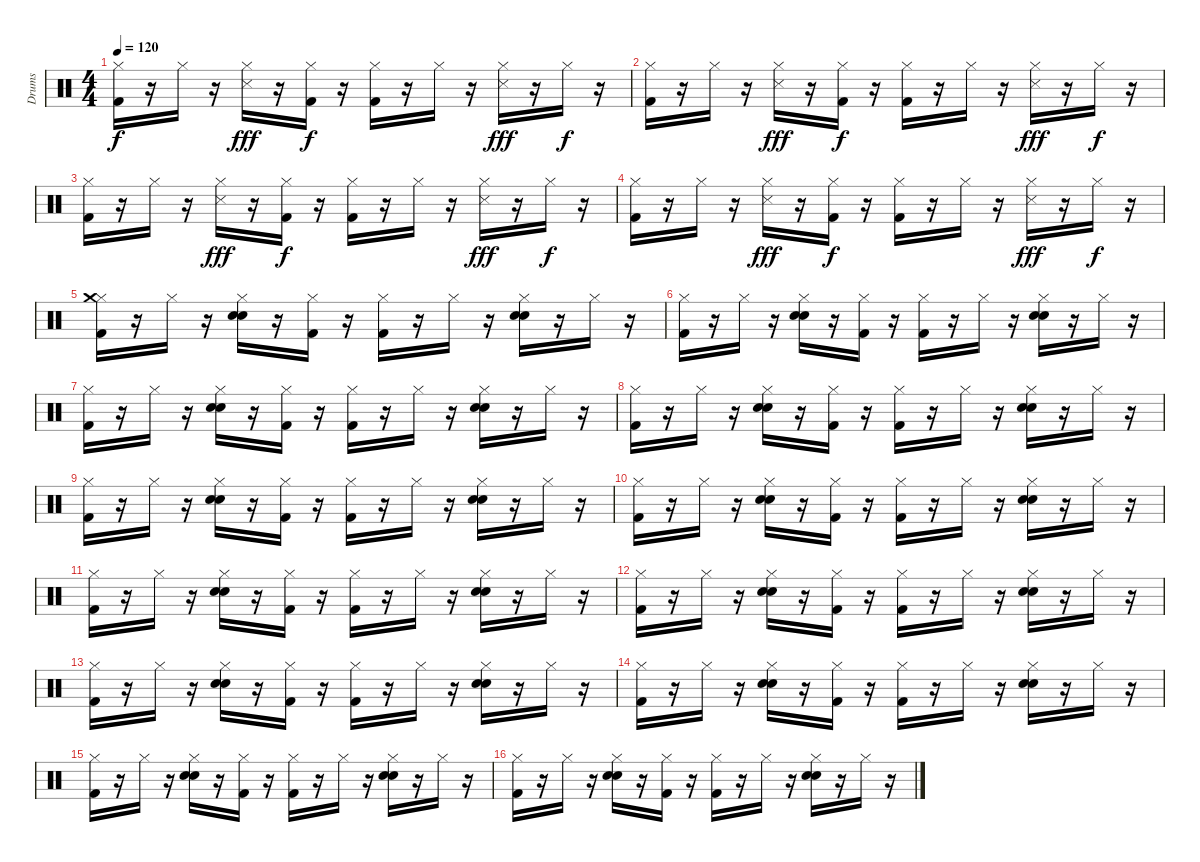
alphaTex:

\track ("Drums" "Drums") {instrument percussion}
\staff {score}
\articulation defaults
\ts (4 4)
\tempo 120
\clef neutral
\ks c
("Hi-Hat (closed)" "Kick (hit) 2").16{dy f} r.16 "Hi-Hat (closed)".16 r.16 ("Hi-Hat (closed)" "Snare (side stick) 3").16{dy fff} r.16 ("Hi-Hat (closed)" "Kick (hit) 2").16{dy f} r.16 ("Hi-Hat (closed)" "Kick (hit) 2").16 r.16 "Hi-Hat (closed)".16 r.16 ("Hi-Hat (closed)" "Snare (side stick) 3").16{dy fff} r.16 "Hi-Hat (closed)".16{dy f} r.16 |
("Hi-Hat (closed)" "Kick (hit) 2").16 r.16 "Hi-Hat (closed)".16 r.16 ("Hi-Hat (closed)" "Snare (side stick) 3").16{dy fff} r.16 ("Hi-Hat (closed)" "Kick (hit) 2").16{dy f} r.16 ("Hi-Hat (closed)" "Kick (hit) 2").16 r.16 "Hi-Hat (closed)".16 r.16 ("Hi-Hat (closed)" "Snare (side stick) 3").16{dy fff} r.16 "Hi-Hat (closed)".16{dy f} r.16 |
("Hi-Hat (closed)" "Kick (hit) 2").16 r.16 "Hi-Hat (closed)".16 r.16 ("Hi-Hat (closed)" "Snare (side stick) 3").16{dy fff} r.16 ("Hi-Hat (closed)" "Kick (hit) 2").16{dy f} r.16 ("Hi-Hat (closed)" "Kick (hit) 2").16 r.16 "Hi-Hat (closed)".16 r.16 ("Hi-Hat (closed)" "Snare (side stick) 3").16{dy fff} r.16 "Hi-Hat (closed)".16{dy f} r.16 |
("Hi-Hat (closed)" "Kick (hit) 2").16 r.16 "Hi-Hat (closed)".16 r.16 ("Hi-Hat (closed)" "Snare (side stick) 3").16{dy fff} r.16 ("Hi-Hat (closed)" "Kick (hit) 2").16{dy f} r.16 ("Hi-Hat (closed)" "Kick (hit) 2").16 r.16 "Hi-Hat (closed)".16 r.16 ("Hi-Hat (closed)" "Snare (side stick) 3").16{dy fff} r.16 "Hi-Hat (closed)".16{dy f} r.16 |
("Hi-Hat (closed)" "Crash medium (hit)" "Kick (hit) 2").16 r.16 "Hi-Hat (closed)".16 r.16 ("Hi-Hat (closed)" "Electric Snare (hit)" "Snare (hit) 2").16 r.16 ("Hi-Hat (closed)" "Kick (hit) 2").16 r.16 ("Hi-Hat (closed)" "Kick (hit) 2").16 r.16 "Hi-Hat (closed)".16 r.16 ("Hi-Hat (closed)" "Electric Snare (hit)" "Snare (hit) 2").16 r.16 "Hi-Hat (closed)".16 r.16 |
("Hi-Hat (closed)" "Kick (hit) 2").16 r.16 "Hi-Hat (closed)".16 r.16 ("Hi-Hat (closed)" "Electric Snare (hit)" "Snare (hit) 2").16 r.16 ("Hi-Hat (closed)" "Kick (hit) 2").16 r.16 ("Hi-Hat (closed)" "Kick (hit) 2").16 r.16 "Hi-Hat (closed)".16 r.16 ("Hi-Hat (closed)" "Electric Snare (hit)" "Snare (hit) 2").16 r.16 "Hi-Hat (closed)".16 r.16 |
("Hi-Hat (closed)" "Kick (hit) 2").16 r.16 "Hi-Hat (closed)".16 r.16 ("Hi-Hat (closed)" "Electric Snare (hit)" "Snare (hit) 2").16 r.16 ("Hi-Hat (closed)" "Kick (hit) 2").16 r.16 ("Hi-Hat (closed)" "Kick (hit) 2").16 r.16 "Hi-Hat (closed)".16 r.16 ("Hi-Hat (closed)" "Electric Snare (hit)" "Snare (hit) 2").16 r.16 "Hi-Hat (closed)".16 r.16 |
("Hi-Hat (closed)" "Kick (hit) 2").16 r.16 "Hi-Hat (closed)".16 r.16 ("Hi-Hat (closed)" "Electric Snare (hit)" "Snare (hit) 2").16 r.16 ("Hi-Hat (closed)" "Kick (hit) 2").16 r.16 ("Hi-Hat (closed)" "Kick (hit) 2").16 r.16 "Hi-Hat (closed)".16 r.16 ("Hi-Hat (closed)" "Electric Snare (hit)" "Snare (hit) 2").16 r.16 "Hi-Hat (closed)".16 r.16 |
("Hi-Hat (closed)" "Kick (hit) 2").16 r.16 "Hi-Hat (closed)".16 r.16 ("Hi-Hat (closed)" "Electric Snare (hit)" "Snare (hit) 2").16 r.16 ("Hi-Hat (closed)" "Kick (hit) 2").16 r.16 ("Hi-Hat (closed)" "Kick (hit) 2").16 r.16 "Hi-Hat (closed)".16 r.16 ("Hi-Hat (closed)" "Electric Snare (hit)" "Snare (hit) 2").16 r.16 "Hi-Hat (closed)".16 r.16 |
("Hi-Hat (closed)" "Kick (hit) 2").16 r.16 "Hi-Hat (closed)".16 r.16 ("Hi-Hat (closed)" "Electric Snare (hit)" "Snare (hit) 2").16 r.16 ("Hi-Hat (closed)" "Kick (hit) 2").16 r.16 ("Hi-Hat (closed)" "Kick (hit) 2").16 r.16 "Hi-Hat (closed)".16 r.16 ("Hi-Hat (closed)" "Electric Snare (hit)" "Snare (hit) 2").16 r.16 "Hi-Hat (closed)".16 r.16 |
("Hi-Hat (closed)" "Kick (hit) 2").16 r.16 "Hi-Hat (closed)".16 r.16 ("Hi-Hat (closed)" "Electric Snare (hit)" "Snare (hit) 2").16 r.16 ("Hi-Hat (closed)" "Kick (hit) 2").16 r.16 ("Hi-Hat (closed)" "Kick (hit) 2").16 r.16 "Hi-Hat (closed)".16 r.16 ("Hi-Hat (closed)" "Electric Snare (hit)" "Snare (hit) 2").16 r.16 "Hi-Hat (closed)".16 r.16 |
("Hi-Hat (closed)" "Kick (hit) 2").16 r.16 "Hi-Hat (closed)".16 r.16 ("Hi-Hat (closed)" "Electric Snare (hit)" "Snare (hit) 2").16 r.16 ("Hi-Hat (closed)" "Kick (hit) 2").16 r.16 ("Hi-Hat (closed)" "Kick (hit) 2").16 r.16 "Hi-Hat (closed)".16 r.16 ("Hi-Hat (closed)" "Electric Snare (hit)" "Snare (hit) 2").16 r.16 "Hi-Hat (closed)".16 r.16 |
("Hi-Hat (closed)" "Kick (hit) 2").16 r.16 "Hi-Hat (closed)".16 r.16 ("Hi-Hat (closed)" "Electric Snare (hit)" "Snare (hit) 2").16 r.16 ("Hi-Hat (closed)" "Kick (hit) 2").16 r.16 ("Hi-Hat (closed)" "Kick (hit) 2").16 r.16 "Hi-Hat (closed)".16 r.16 ("Hi-Hat (closed)" "Electric Snare (hit)" "Snare (hit) 2").16 r.16 "Hi-Hat (closed)".16 r.16 |
("Hi-Hat (closed)" "Kick (hit) 2").16 r.16 "Hi-Hat (closed)".16 r.16 ("Hi-Hat (closed)" "Electric Snare (hit)" "Snare (hit) 2").16 r.16 ("Hi-Hat (closed)" "Kick (hit) 2").16 r.16 ("Hi-Hat (closed)" "Kick (hit) 2").16 r.16 "Hi-Hat (closed)".16 r.16 ("Hi-Hat (closed)" "Electric Snare (hit)" "Snare (hit) 2").16 r.16 "Hi-Hat (closed)".16 r.16 |
("Hi-Hat (closed)" "Kick (hit) 2").16 r.16 "Hi-Hat (closed)".16 r.16 ("Hi-Hat (closed)" "Electric Snare (hit)" "Snare (hit) 2").16 r.16 ("Hi-Hat (closed)" "Kick (hit) 2").16 r.16 ("Hi-Hat (closed)" "Kick (hit) 2").16 r.16 "Hi-Hat (closed)".16 r.16 ("Hi-Hat (closed)" "Electric Snare (hit)" "Snare (hit) 2").16 r.16 "Hi-Hat (closed)".16 r.16 |
("Hi-Hat (closed)" "Kick (hit) 2").16 r.16 "Hi-Hat (closed)".16 r.16 ("Hi-Hat (closed)" "Electric Snare (hit)" "Snare (hit) 2").16 r.16 ("Hi-Hat (closed)" "Kick (hit) 2").16 r.16 ("Hi-Hat (closed)" "Kick (hit) 2").16 r.16 "Hi-Hat (closed)".16 r.16 ("Hi-Hat (closed)" "Electric Snare (hit)" "Snare (hit) 2").16 r.16 "Hi-Hat (closed)".16 r.16
